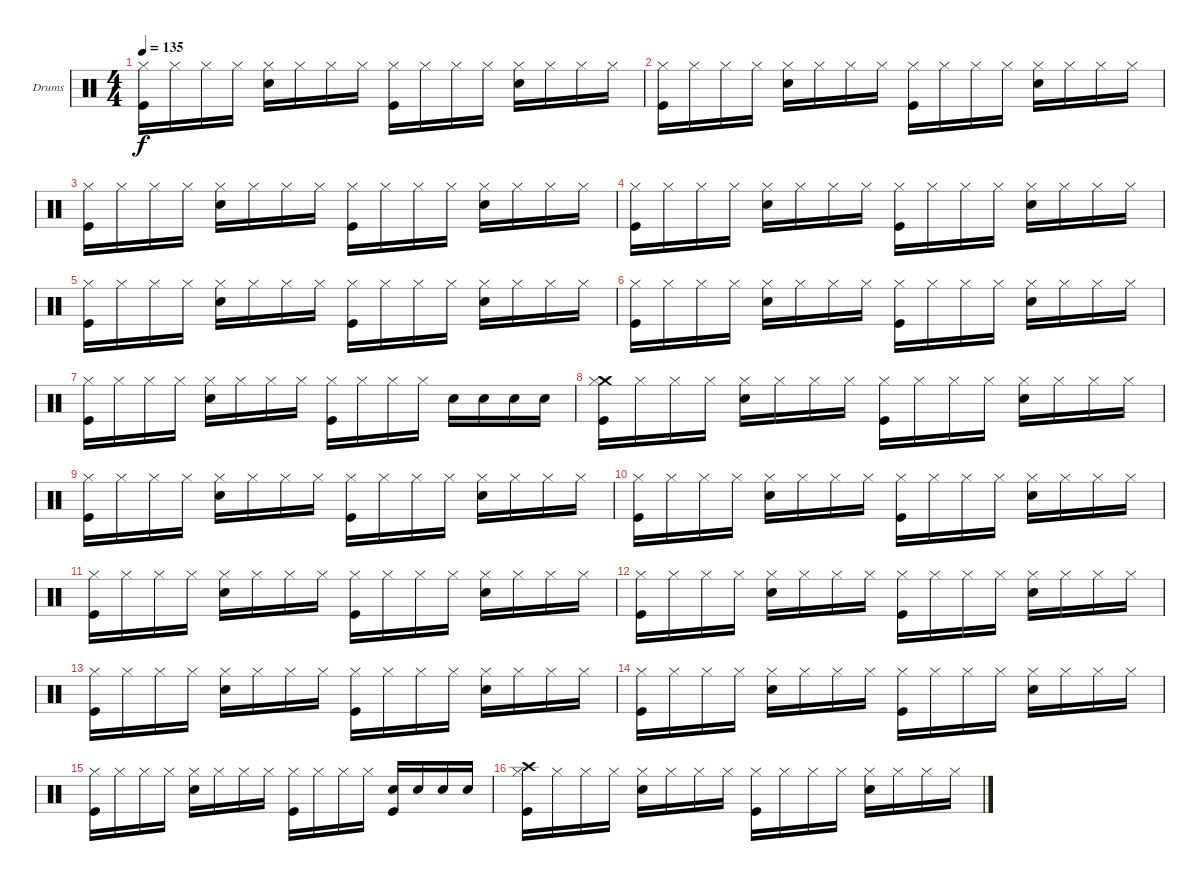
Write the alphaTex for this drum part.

\bracketExtendMode groupsimilarinstruments
\firstSystemTrackNameOrientation horizontal
\otherSystemsTrackNameOrientation horizontal
\track ("Ударные" "Drums") {instrument percussion}
\staff {score}
\articulation defaults
\ts (4 4)
\tempo 135
\clef neutral
\ks c
("Hi-Hat (closed)" "Kick (hit)").16{dy f} "Hi-Hat (closed)".16 "Hi-Hat (closed)".16 "Hi-Hat (closed)".16 ("Hi-Hat (closed)" "Snare (hit) 2").16 "Hi-Hat (closed)".16 "Hi-Hat (closed)".16 "Hi-Hat (closed)".16 ("Hi-Hat (closed)" "Kick (hit)").16 "Hi-Hat (closed)".16 "Hi-Hat (closed)".16 "Hi-Hat (closed)".16 ("Hi-Hat (closed)" "Snare (hit) 2").16 "Hi-Hat (closed)".16 "Hi-Hat (closed)".16 "Hi-Hat (closed)".16 |
("Hi-Hat (closed)" "Kick (hit)").16 "Hi-Hat (closed)".16 "Hi-Hat (closed)".16 "Hi-Hat (closed)".16 ("Hi-Hat (closed)" "Snare (hit) 2").16 "Hi-Hat (closed)".16 "Hi-Hat (closed)".16 "Hi-Hat (closed)".16 ("Hi-Hat (closed)" "Kick (hit)").16 "Hi-Hat (closed)".16 "Hi-Hat (closed)".16 "Hi-Hat (closed)".16 ("Hi-Hat (closed)" "Snare (hit) 2").16 "Hi-Hat (closed)".16 "Hi-Hat (closed)".16 "Hi-Hat (closed)".16 |
("Hi-Hat (closed)" "Kick (hit)").16 "Hi-Hat (closed)".16 "Hi-Hat (closed)".16 "Hi-Hat (closed)".16 ("Hi-Hat (closed)" "Snare (hit) 2").16 "Hi-Hat (closed)".16 "Hi-Hat (closed)".16 "Hi-Hat (closed)".16 ("Hi-Hat (closed)" "Kick (hit)").16 "Hi-Hat (closed)".16 "Hi-Hat (closed)".16 "Hi-Hat (closed)".16 ("Hi-Hat (closed)" "Snare (hit) 2").16 "Hi-Hat (closed)".16 "Hi-Hat (closed)".16 "Hi-Hat (closed)".16 |
("Hi-Hat (closed)" "Kick (hit)").16 "Hi-Hat (closed)".16 "Hi-Hat (closed)".16 "Hi-Hat (closed)".16 ("Hi-Hat (closed)" "Snare (hit) 2").16 "Hi-Hat (closed)".16 "Hi-Hat (closed)".16 "Hi-Hat (closed)".16 ("Hi-Hat (closed)" "Kick (hit)").16 "Hi-Hat (closed)".16 "Hi-Hat (closed)".16 "Hi-Hat (closed)".16 ("Hi-Hat (closed)" "Snare (hit) 2").16 "Hi-Hat (closed)".16 "Hi-Hat (closed)".16 "Hi-Hat (closed)".16 |
("Hi-Hat (closed)" "Kick (hit)").16 "Hi-Hat (closed)".16 "Hi-Hat (closed)".16 "Hi-Hat (closed)".16 ("Hi-Hat (closed)" "Snare (hit) 2").16 "Hi-Hat (closed)".16 "Hi-Hat (closed)".16 "Hi-Hat (closed)".16 ("Hi-Hat (closed)" "Kick (hit)").16 "Hi-Hat (closed)".16 "Hi-Hat (closed)".16 "Hi-Hat (closed)".16 ("Hi-Hat (closed)" "Snare (hit) 2").16 "Hi-Hat (closed)".16 "Hi-Hat (closed)".16 "Hi-Hat (closed)".16 |
("Hi-Hat (closed)" "Kick (hit)").16 "Hi-Hat (closed)".16 "Hi-Hat (closed)".16 "Hi-Hat (closed)".16 ("Hi-Hat (closed)" "Snare (hit) 2").16 "Hi-Hat (closed)".16 "Hi-Hat (closed)".16 "Hi-Hat (closed)".16 ("Hi-Hat (closed)" "Kick (hit)").16 "Hi-Hat (closed)".16 "Hi-Hat (closed)".16 "Hi-Hat (closed)".16 ("Hi-Hat (closed)" "Snare (hit) 2").16 "Hi-Hat (closed)".16 "Hi-Hat (closed)".16 "Hi-Hat (closed)".16 |
("Hi-Hat (closed)" "Kick (hit)").16 "Hi-Hat (closed)".16 "Hi-Hat (closed)".16 "Hi-Hat (closed)".16 ("Hi-Hat (closed)" "Snare (hit) 2").16 "Hi-Hat (closed)".16 "Hi-Hat (closed)".16 "Hi-Hat (closed)".16 ("Hi-Hat (closed)" "Kick (hit)").16 "Hi-Hat (closed)".16 "Hi-Hat (closed)".16 "Hi-Hat (closed)".16 "Snare (hit) 2".16 "Snare (hit) 2".16 "Snare (hit) 2".16 "Snare (hit) 2".16 |
("Crash medium (hit)" "Hi-Hat (closed)" "Kick (hit)").16 "Hi-Hat (closed)".16 "Hi-Hat (closed)".16 "Hi-Hat (closed)".16 ("Hi-Hat (closed)" "Snare (hit) 2").16 "Hi-Hat (closed)".16 "Hi-Hat (closed)".16 "Hi-Hat (closed)".16 ("Hi-Hat (closed)" "Kick (hit)").16 "Hi-Hat (closed)".16 "Hi-Hat (closed)".16 "Hi-Hat (closed)".16 ("Hi-Hat (closed)" "Snare (hit) 2").16 "Hi-Hat (closed)".16 "Hi-Hat (closed)".16 "Hi-Hat (closed)".16 |
("Hi-Hat (closed)" "Kick (hit)").16 "Hi-Hat (closed)".16 "Hi-Hat (closed)".16 "Hi-Hat (closed)".16 ("Hi-Hat (closed)" "Snare (hit) 2").16 "Hi-Hat (closed)".16 "Hi-Hat (closed)".16 "Hi-Hat (closed)".16 ("Hi-Hat (closed)" "Kick (hit)").16 "Hi-Hat (closed)".16 "Hi-Hat (closed)".16 "Hi-Hat (closed)".16 ("Hi-Hat (closed)" "Snare (hit) 2").16 "Hi-Hat (closed)".16 "Hi-Hat (closed)".16 "Hi-Hat (closed)".16 |
("Hi-Hat (closed)" "Kick (hit)").16 "Hi-Hat (closed)".16 "Hi-Hat (closed)".16 "Hi-Hat (closed)".16 ("Hi-Hat (closed)" "Snare (hit) 2").16 "Hi-Hat (closed)".16 "Hi-Hat (closed)".16 "Hi-Hat (closed)".16 ("Hi-Hat (closed)" "Kick (hit)").16 "Hi-Hat (closed)".16 "Hi-Hat (closed)".16 "Hi-Hat (closed)".16 ("Hi-Hat (closed)" "Snare (hit) 2").16 "Hi-Hat (closed)".16 "Hi-Hat (closed)".16 "Hi-Hat (closed)".16 |
("Hi-Hat (closed)" "Kick (hit)").16 "Hi-Hat (closed)".16 "Hi-Hat (closed)".16 "Hi-Hat (closed)".16 ("Hi-Hat (closed)" "Snare (hit) 2").16 "Hi-Hat (closed)".16 "Hi-Hat (closed)".16 "Hi-Hat (closed)".16 ("Hi-Hat (closed)" "Kick (hit)").16 "Hi-Hat (closed)".16 "Hi-Hat (closed)".16 "Hi-Hat (closed)".16 ("Hi-Hat (closed)" "Snare (hit) 2").16 "Hi-Hat (closed)".16 "Hi-Hat (closed)".16 "Hi-Hat (closed)".16 |
("Hi-Hat (closed)" "Kick (hit)").16 "Hi-Hat (closed)".16 "Hi-Hat (closed)".16 "Hi-Hat (closed)".16 ("Hi-Hat (closed)" "Snare (hit) 2").16 "Hi-Hat (closed)".16 "Hi-Hat (closed)".16 "Hi-Hat (closed)".16 ("Hi-Hat (closed)" "Kick (hit)").16 "Hi-Hat (closed)".16 "Hi-Hat (closed)".16 "Hi-Hat (closed)".16 ("Hi-Hat (closed)" "Snare (hit) 2").16 "Hi-Hat (closed)".16 "Hi-Hat (closed)".16 "Hi-Hat (closed)".16 |
("Hi-Hat (closed)" "Kick (hit)").16 "Hi-Hat (closed)".16 "Hi-Hat (closed)".16 "Hi-Hat (closed)".16 ("Hi-Hat (closed)" "Snare (hit) 2").16 "Hi-Hat (closed)".16 "Hi-Hat (closed)".16 "Hi-Hat (closed)".16 ("Hi-Hat (closed)" "Kick (hit)").16 "Hi-Hat (closed)".16 "Hi-Hat (closed)".16 "Hi-Hat (closed)".16 ("Hi-Hat (closed)" "Snare (hit) 2").16 "Hi-Hat (closed)".16 "Hi-Hat (closed)".16 "Hi-Hat (closed)".16 |
("Hi-Hat (closed)" "Kick (hit)").16 "Hi-Hat (closed)".16 "Hi-Hat (closed)".16 "Hi-Hat (closed)".16 ("Hi-Hat (closed)" "Snare (hit) 2").16 "Hi-Hat (closed)".16 "Hi-Hat (closed)".16 "Hi-Hat (closed)".16 ("Hi-Hat (closed)" "Kick (hit)").16 "Hi-Hat (closed)".16 "Hi-Hat (closed)".16 "Hi-Hat (closed)".16 ("Hi-Hat (closed)" "Snare (hit) 2").16 "Hi-Hat (closed)".16 "Hi-Hat (closed)".16 "Hi-Hat (closed)".16 |
("Hi-Hat (closed)" "Kick (hit)").16 "Hi-Hat (closed)".16 "Hi-Hat (closed)".16 "Hi-Hat (closed)".16 ("Hi-Hat (closed)" "Snare (hit) 2").16 "Hi-Hat (closed)".16 "Hi-Hat (closed)".16 "Hi-Hat (closed)".16 ("Hi-Hat (closed)" "Kick (hit)").16 "Hi-Hat (closed)".16 "Hi-Hat (closed)".16 "Hi-Hat (closed)".16 ("Snare (hit) 2" "Kick (hit)").16 "Snare (hit) 2".16 "Snare (hit) 2".16 "Snare (hit) 2".16 |
("Crash high (hit)" "Hi-Hat (closed)" "Kick (hit)").16 "Hi-Hat (closed)".16 "Hi-Hat (closed)".16 "Hi-Hat (closed)".16 ("Hi-Hat (closed)" "Snare (hit) 2").16 "Hi-Hat (closed)".16 "Hi-Hat (closed)".16 "Hi-Hat (closed)".16 ("Hi-Hat (closed)" "Kick (hit)").16 "Hi-Hat (closed)".16 "Hi-Hat (closed)".16 "Hi-Hat (closed)".16 ("Hi-Hat (closed)" "Snare (hit) 2").16 "Hi-Hat (closed)".16 "Hi-Hat (closed)".16 "Hi-Hat (closed)".16
